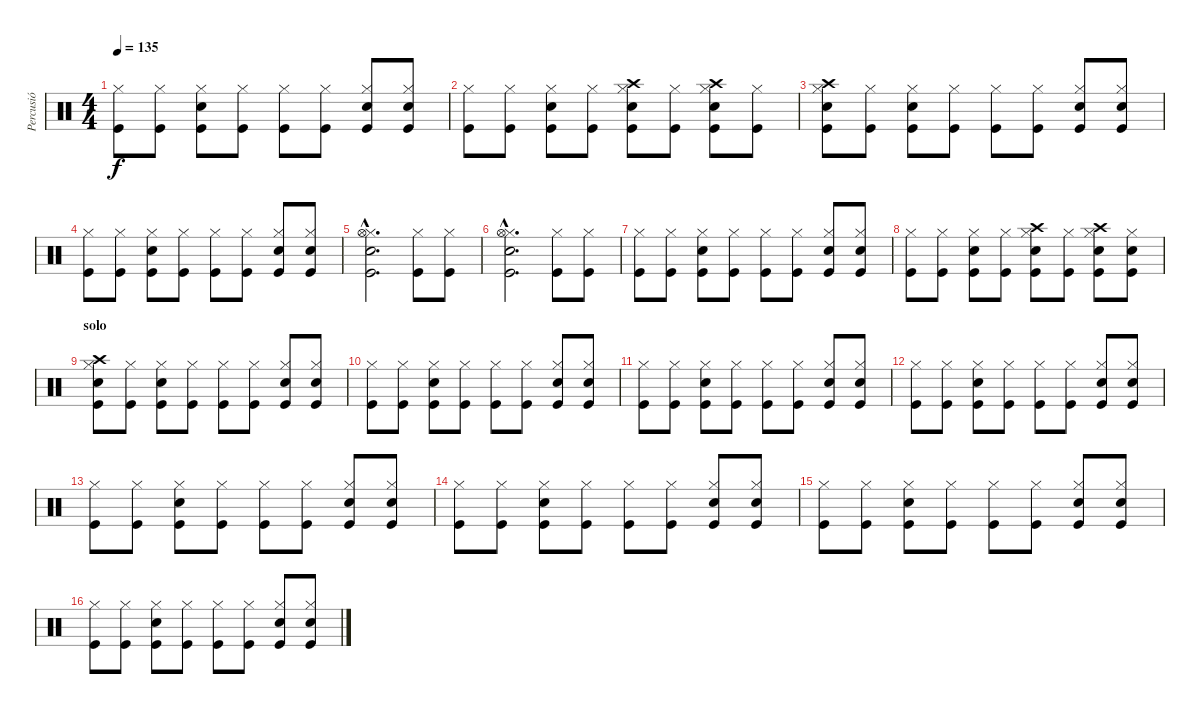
\track ("Percusió" "Percusió") {instrument percussion}
\staff {score}
\articulation defaults
\ts (4 4)
\tempo 135
\clef neutral
\ks c
("Kick (hit)" "Hi-Hat (closed)").8{dy f} ("Kick (hit)" "Hi-Hat (closed)").8 ("Kick (hit)" "Hi-Hat (closed)" "Snare (hit) 2").8 ("Kick (hit)" "Hi-Hat (closed)").8 ("Kick (hit)" "Hi-Hat (closed)").8 ("Kick (hit)" "Hi-Hat (closed)").8 ("Kick (hit)" "Hi-Hat (closed)" "Snare (hit) 2").8 ("Kick (hit)" "Hi-Hat (closed)" "Snare (hit) 2").8 |
("Kick (hit)" "Hi-Hat (closed)").8 ("Kick (hit)" "Hi-Hat (closed)").8 ("Kick (hit)" "Hi-Hat (closed)" "Snare (hit) 2").8 ("Kick (hit)" "Hi-Hat (closed)").8 ("Kick (hit)" "Hi-Hat (closed)" "Snare (hit) 2" "Crash high (hit)").8 ("Kick (hit)" "Hi-Hat (closed)").8 ("Kick (hit)" "Hi-Hat (closed)" "Snare (hit) 2" "Crash high (hit)").8 ("Kick (hit)" "Hi-Hat (closed)").8 |
("Kick (hit)" "Hi-Hat (closed)" "Snare (hit) 2" "Crash high (hit)").8 ("Kick (hit)" "Hi-Hat (closed)").8 ("Kick (hit)" "Hi-Hat (closed)" "Snare (hit) 2").8 ("Kick (hit)" "Hi-Hat (closed)").8 ("Kick (hit)" "Hi-Hat (closed)").8 ("Kick (hit)" "Hi-Hat (closed)").8 ("Kick (hit)" "Hi-Hat (closed)" "Snare (hit) 2").8 ("Kick (hit)" "Hi-Hat (closed)" "Snare (hit) 2").8 |
("Kick (hit)" "Hi-Hat (closed)").8 ("Kick (hit)" "Hi-Hat (closed)").8 ("Kick (hit)" "Hi-Hat (closed)" "Snare (hit) 2").8 ("Kick (hit)" "Hi-Hat (closed)").8 ("Kick (hit)" "Hi-Hat (closed)").8 ("Kick (hit)" "Hi-Hat (closed)").8 ("Kick (hit)" "Hi-Hat (closed)" "Snare (hit) 2").8 ("Kick (hit)" "Hi-Hat (closed)" "Snare (hit) 2").8 |
("Kick (hit)"{hac} "Hi-Hat (closed)"{hac} "Snare (hit) 2"{hac} "Hi-Hat (open)"{hac}).2{d} ("Kick (hit)" "Hi-Hat (closed)").8 ("Kick (hit)" "Hi-Hat (closed)").8 |
("Kick (hit)"{hac} "Hi-Hat (closed)"{hac} "Snare (hit) 2"{hac} "Hi-Hat (open)"{hac}).2{d} ("Kick (hit)" "Hi-Hat (closed)").8 ("Kick (hit)" "Hi-Hat (closed)").8 |
("Kick (hit)" "Hi-Hat (closed)").8 ("Kick (hit)" "Hi-Hat (closed)").8 ("Kick (hit)" "Hi-Hat (closed)" "Snare (hit) 2").8 ("Kick (hit)" "Hi-Hat (closed)").8 ("Kick (hit)" "Hi-Hat (closed)").8 ("Kick (hit)" "Hi-Hat (closed)").8 ("Kick (hit)" "Hi-Hat (closed)" "Snare (hit) 2").8 ("Kick (hit)" "Hi-Hat (closed)" "Snare (hit) 2").8 |
("Kick (hit)" "Hi-Hat (closed)").8 ("Kick (hit)" "Hi-Hat (closed)").8 ("Kick (hit)" "Hi-Hat (closed)" "Snare (hit) 2").8 ("Kick (hit)" "Hi-Hat (closed)").8 ("Kick (hit)" "Hi-Hat (closed)" "Snare (hit) 2" "Crash high (hit)").8 ("Kick (hit)" "Hi-Hat (closed)").8 ("Kick (hit)" "Hi-Hat (closed)" "Snare (hit) 2" "Crash high (hit)").8 ("Kick (hit)" "Hi-Hat (closed)" "Snare (hit) 2").8 |
\section ("" "solo")
("Kick (hit)" "Hi-Hat (closed)" "Snare (hit) 2" "Crash high (hit)").8 ("Kick (hit)" "Hi-Hat (closed)").8 ("Kick (hit)" "Hi-Hat (closed)" "Snare (hit) 2").8 ("Kick (hit)" "Hi-Hat (closed)").8 ("Kick (hit)" "Hi-Hat (closed)").8 ("Kick (hit)" "Hi-Hat (closed)").8 ("Kick (hit)" "Hi-Hat (closed)" "Snare (hit) 2").8 ("Kick (hit)" "Hi-Hat (closed)" "Snare (hit) 2").8 |
("Kick (hit)" "Hi-Hat (closed)").8 ("Kick (hit)" "Hi-Hat (closed)").8 ("Kick (hit)" "Hi-Hat (closed)" "Snare (hit) 2").8 ("Kick (hit)" "Hi-Hat (closed)").8 ("Kick (hit)" "Hi-Hat (closed)").8 ("Kick (hit)" "Hi-Hat (closed)").8 ("Kick (hit)" "Hi-Hat (closed)" "Snare (hit) 2").8 ("Kick (hit)" "Hi-Hat (closed)" "Snare (hit) 2").8 |
("Kick (hit)" "Hi-Hat (closed)").8 ("Kick (hit)" "Hi-Hat (closed)").8 ("Kick (hit)" "Hi-Hat (closed)" "Snare (hit) 2").8 ("Kick (hit)" "Hi-Hat (closed)").8 ("Kick (hit)" "Hi-Hat (closed)").8 ("Kick (hit)" "Hi-Hat (closed)").8 ("Kick (hit)" "Hi-Hat (closed)" "Snare (hit) 2").8 ("Kick (hit)" "Hi-Hat (closed)" "Snare (hit) 2").8 |
("Kick (hit)" "Hi-Hat (closed)").8 ("Kick (hit)" "Hi-Hat (closed)").8 ("Kick (hit)" "Hi-Hat (closed)" "Snare (hit) 2").8 ("Kick (hit)" "Hi-Hat (closed)").8 ("Kick (hit)" "Hi-Hat (closed)").8 ("Kick (hit)" "Hi-Hat (closed)").8 ("Kick (hit)" "Hi-Hat (closed)" "Snare (hit) 2").8 ("Kick (hit)" "Hi-Hat (closed)" "Snare (hit) 2").8 |
("Kick (hit)" "Hi-Hat (closed)").8 ("Kick (hit)" "Hi-Hat (closed)").8 ("Kick (hit)" "Hi-Hat (closed)" "Snare (hit) 2").8 ("Kick (hit)" "Hi-Hat (closed)").8 ("Kick (hit)" "Hi-Hat (closed)").8 ("Kick (hit)" "Hi-Hat (closed)").8 ("Kick (hit)" "Hi-Hat (closed)" "Snare (hit) 2").8 ("Kick (hit)" "Hi-Hat (closed)" "Snare (hit) 2").8 |
("Kick (hit)" "Hi-Hat (closed)").8 ("Kick (hit)" "Hi-Hat (closed)").8 ("Kick (hit)" "Hi-Hat (closed)" "Snare (hit) 2").8 ("Kick (hit)" "Hi-Hat (closed)").8 ("Kick (hit)" "Hi-Hat (closed)").8 ("Kick (hit)" "Hi-Hat (closed)").8 ("Kick (hit)" "Hi-Hat (closed)" "Snare (hit) 2").8 ("Kick (hit)" "Hi-Hat (closed)" "Snare (hit) 2").8 |
("Kick (hit)" "Hi-Hat (closed)").8 ("Kick (hit)" "Hi-Hat (closed)").8 ("Kick (hit)" "Hi-Hat (closed)" "Snare (hit) 2").8 ("Kick (hit)" "Hi-Hat (closed)").8 ("Kick (hit)" "Hi-Hat (closed)").8 ("Kick (hit)" "Hi-Hat (closed)").8 ("Kick (hit)" "Hi-Hat (closed)" "Snare (hit) 2").8 ("Kick (hit)" "Hi-Hat (closed)" "Snare (hit) 2").8 |
("Kick (hit)" "Hi-Hat (closed)").8 ("Kick (hit)" "Hi-Hat (closed)").8 ("Kick (hit)" "Hi-Hat (closed)" "Snare (hit) 2").8 ("Kick (hit)" "Hi-Hat (closed)").8 ("Kick (hit)" "Hi-Hat (closed)").8 ("Kick (hit)" "Hi-Hat (closed)").8 ("Kick (hit)" "Hi-Hat (closed)" "Snare (hit) 2").8 ("Kick (hit)" "Hi-Hat (closed)" "Snare (hit) 2").8
